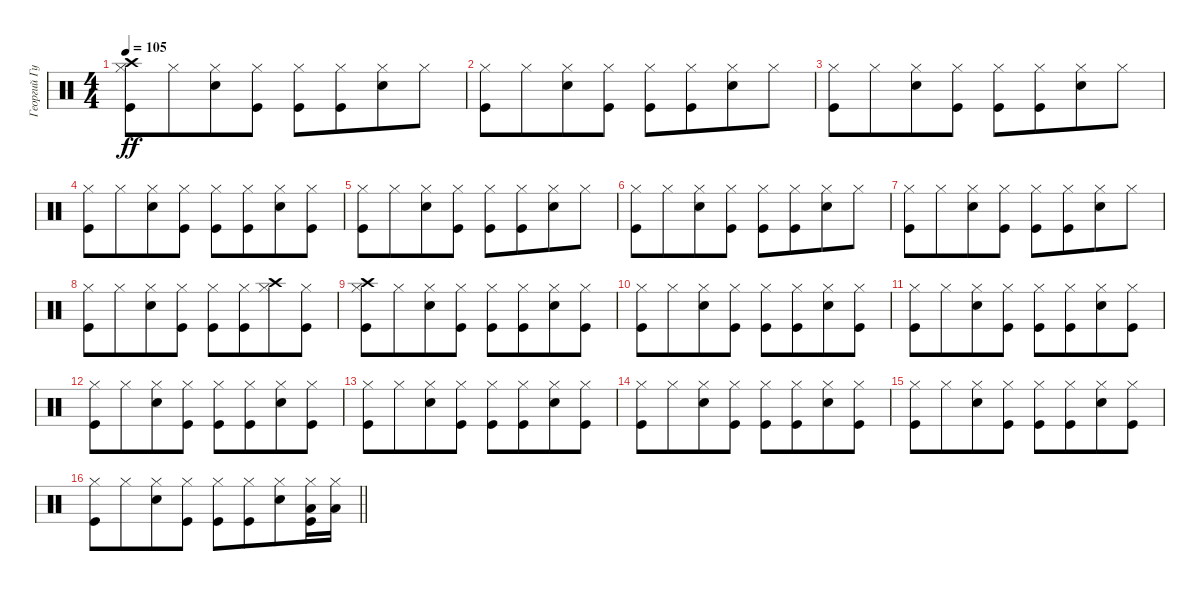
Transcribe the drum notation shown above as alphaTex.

\track ("Георгий Гурьянов" "Георгий Гу") {instrument percussion}
\staff {score}
\articulation defaults
\ts (4 4)
\tempo 105
\clef neutral
\ks c
("Hi-Hat (closed)" "Crash high (hit)" "Kick (hit)").8{dy ff} "Hi-Hat (closed)".8{beam merge} ("Hi-Hat (closed)" "Snare (hit) 2").8 ("Hi-Hat (closed)" "Kick (hit)").8 ("Hi-Hat (closed)" "Kick (hit)").8 ("Hi-Hat (closed)" "Kick (hit)").8{beam merge} ("Hi-Hat (closed)" "Snare (hit) 2").8 "Hi-Hat (closed)".8 |
("Hi-Hat (closed)" "Kick (hit)").8 "Hi-Hat (closed)".8{beam merge} ("Hi-Hat (closed)" "Snare (hit) 2").8 ("Hi-Hat (closed)" "Kick (hit)").8 ("Hi-Hat (closed)" "Kick (hit)").8 ("Hi-Hat (closed)" "Kick (hit)").8{beam merge} ("Hi-Hat (closed)" "Snare (hit) 2").8 "Hi-Hat (closed)".8 |
("Hi-Hat (closed)" "Kick (hit)").8 "Hi-Hat (closed)".8{beam merge} ("Hi-Hat (closed)" "Snare (hit) 2").8 ("Hi-Hat (closed)" "Kick (hit)").8 ("Hi-Hat (closed)" "Kick (hit)").8 ("Hi-Hat (closed)" "Kick (hit)").8{beam merge} ("Hi-Hat (closed)" "Snare (hit) 2").8 "Hi-Hat (closed)".8 |
("Hi-Hat (closed)" "Kick (hit)").8 "Hi-Hat (closed)".8{beam merge} ("Hi-Hat (closed)" "Snare (hit) 2").8 ("Hi-Hat (closed)" "Kick (hit)").8 ("Hi-Hat (closed)" "Kick (hit)").8 ("Hi-Hat (closed)" "Kick (hit)").8{beam merge} ("Hi-Hat (closed)" "Snare (hit) 2").8 ("Hi-Hat (closed)" "Kick (hit)").8 |
("Hi-Hat (closed)" "Kick (hit)").8 "Hi-Hat (closed)".8{beam merge} ("Hi-Hat (closed)" "Snare (hit) 2").8 ("Hi-Hat (closed)" "Kick (hit)").8 ("Hi-Hat (closed)" "Kick (hit)").8 ("Hi-Hat (closed)" "Kick (hit)").8{beam merge} ("Hi-Hat (closed)" "Snare (hit) 2").8 "Hi-Hat (closed)".8 |
("Hi-Hat (closed)" "Kick (hit)").8 "Hi-Hat (closed)".8{beam merge} ("Hi-Hat (closed)" "Snare (hit) 2").8 ("Hi-Hat (closed)" "Kick (hit)").8 ("Hi-Hat (closed)" "Kick (hit)").8 ("Hi-Hat (closed)" "Kick (hit)").8{beam merge} ("Hi-Hat (closed)" "Snare (hit) 2").8 "Hi-Hat (closed)".8 |
("Hi-Hat (closed)" "Kick (hit)").8 "Hi-Hat (closed)".8{beam merge} ("Hi-Hat (closed)" "Snare (hit) 2").8 ("Hi-Hat (closed)" "Kick (hit)").8 ("Hi-Hat (closed)" "Kick (hit)").8 ("Hi-Hat (closed)" "Kick (hit)").8{beam merge} ("Hi-Hat (closed)" "Snare (hit) 2").8 "Hi-Hat (closed)".8 |
("Hi-Hat (closed)" "Kick (hit)").8 "Hi-Hat (closed)".8{beam merge} ("Hi-Hat (closed)" "Snare (hit) 2").8 ("Hi-Hat (closed)" "Kick (hit)").8 ("Hi-Hat (closed)" "Kick (hit)").8 ("Hi-Hat (closed)" "Kick (hit)").8{beam merge} ("Hi-Hat (closed)" "Crash high (hit)").8 ("Hi-Hat (closed)" "Kick (hit)").8 |
("Hi-Hat (closed)" "Crash high (hit)" "Kick (hit)").8 "Hi-Hat (closed)".8{beam merge} ("Hi-Hat (closed)" "Snare (hit) 2").8 ("Hi-Hat (closed)" "Kick (hit)").8 ("Hi-Hat (closed)" "Kick (hit)").8 ("Hi-Hat (closed)" "Kick (hit)").8{beam merge} ("Hi-Hat (closed)" "Snare (hit) 2").8 ("Hi-Hat (closed)" "Kick (hit)").8 |
("Hi-Hat (closed)" "Kick (hit)").8 "Hi-Hat (closed)".8{beam merge} ("Hi-Hat (closed)" "Snare (hit) 2").8 ("Hi-Hat (closed)" "Kick (hit)").8 ("Hi-Hat (closed)" "Kick (hit)").8 ("Hi-Hat (closed)" "Kick (hit)").8{beam merge} ("Hi-Hat (closed)" "Snare (hit) 2").8 ("Hi-Hat (closed)" "Kick (hit)").8 |
("Hi-Hat (closed)" "Kick (hit)").8 "Hi-Hat (closed)".8{beam merge} ("Hi-Hat (closed)" "Snare (hit) 2").8 ("Hi-Hat (closed)" "Kick (hit)").8 ("Hi-Hat (closed)" "Kick (hit)").8 ("Hi-Hat (closed)" "Kick (hit)").8{beam merge} ("Hi-Hat (closed)" "Snare (hit) 2").8 ("Hi-Hat (closed)" "Kick (hit)").8 |
("Hi-Hat (closed)" "Kick (hit)").8 "Hi-Hat (closed)".8{beam merge} ("Hi-Hat (closed)" "Snare (hit) 2").8 ("Hi-Hat (closed)" "Kick (hit)").8 ("Hi-Hat (closed)" "Kick (hit)").8 ("Hi-Hat (closed)" "Kick (hit)").8{beam merge} ("Hi-Hat (closed)" "Snare (hit) 2").8 ("Hi-Hat (closed)" "Kick (hit)").8 |
("Hi-Hat (closed)" "Kick (hit)").8 "Hi-Hat (closed)".8{beam merge} ("Hi-Hat (closed)" "Snare (hit) 2").8 ("Hi-Hat (closed)" "Kick (hit)").8 ("Hi-Hat (closed)" "Kick (hit)").8 ("Hi-Hat (closed)" "Kick (hit)").8{beam merge} ("Hi-Hat (closed)" "Snare (hit) 2").8 ("Hi-Hat (closed)" "Kick (hit)").8 |
("Hi-Hat (closed)" "Kick (hit)").8 "Hi-Hat (closed)".8{beam merge} ("Hi-Hat (closed)" "Snare (hit) 2").8 ("Hi-Hat (closed)" "Kick (hit)").8 ("Hi-Hat (closed)" "Kick (hit)").8 ("Hi-Hat (closed)" "Kick (hit)").8{beam merge} ("Hi-Hat (closed)" "Snare (hit) 2").8 ("Hi-Hat (closed)" "Kick (hit)").8 |
("Hi-Hat (closed)" "Kick (hit)").8 "Hi-Hat (closed)".8{beam merge} ("Hi-Hat (closed)" "Snare (hit) 2").8 ("Hi-Hat (closed)" "Kick (hit)").8 ("Hi-Hat (closed)" "Kick (hit)").8 ("Hi-Hat (closed)" "Kick (hit)").8{beam merge} ("Hi-Hat (closed)" "Snare (hit) 2").8 ("Hi-Hat (closed)" "Kick (hit)").8 |
\barLineRight lightlight
("Hi-Hat (closed)" "Kick (hit)").8 "Hi-Hat (closed)".8{beam merge} ("Hi-Hat (closed)" "Snare (hit) 2").8 ("Hi-Hat (closed)" "Kick (hit)").8 ("Hi-Hat (closed)" "Kick (hit)").8 ("Hi-Hat (closed)" "Kick (hit)").8{beam merge} ("Hi-Hat (closed)" "Snare (hit) 2").8 ("Hi-Hat (closed)" "Low Tom (hit)" "Kick (hit)").16 ("Hi-Hat (closed)" "Low Tom (hit)").16
